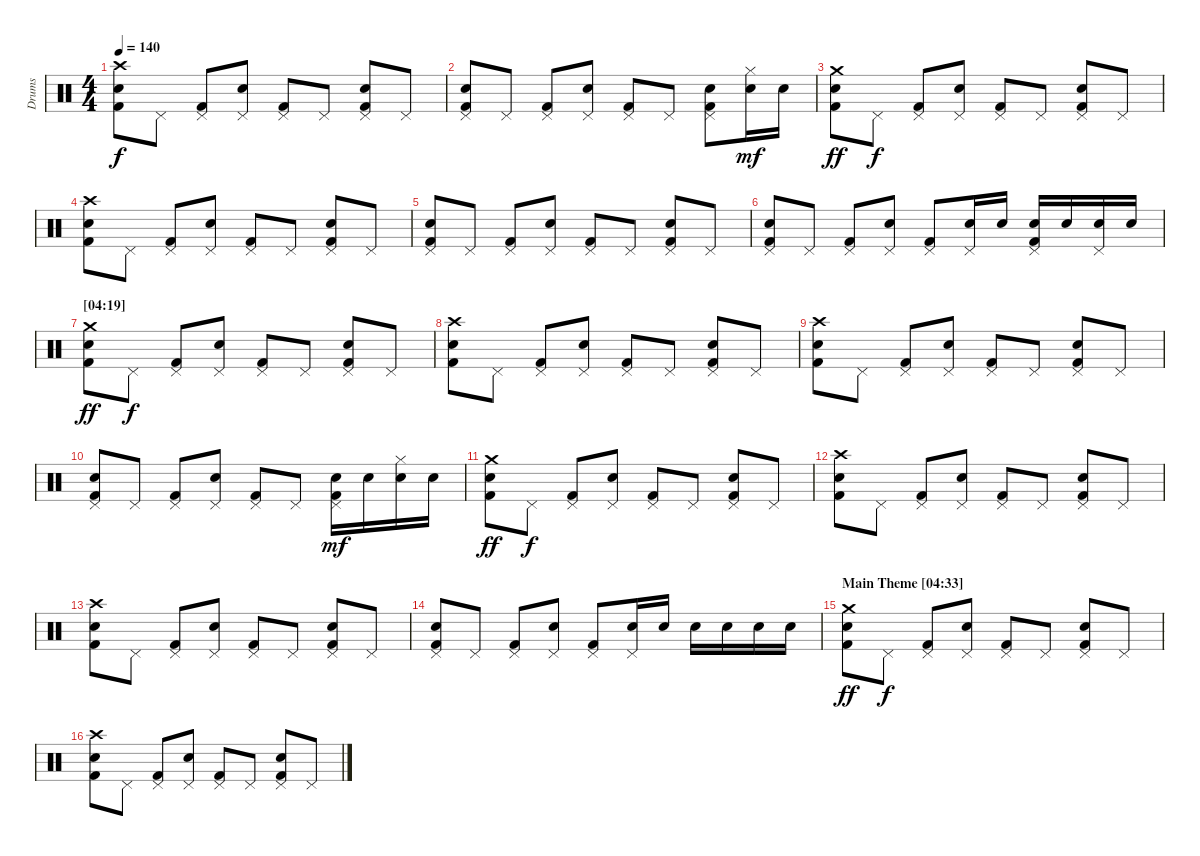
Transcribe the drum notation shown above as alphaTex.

\track ("Drums" "Drums") {instrument percussion}
\staff {score}
\articulation defaults
\ts (4 4)
\tempo 140
\clef neutral
\ks c
("Crash high (hit)" "Electric Snare (hit)" "Kick (hit) 2").8{dy f} "Pedal Hi-Hat (hit)".8 ("Pedal Hi-Hat (hit)" "Kick (hit) 2").8 ("Pedal Hi-Hat (hit)" "Electric Snare (hit)").8 ("Pedal Hi-Hat (hit)" "Kick (hit) 2").8 "Pedal Hi-Hat (hit)".8 ("Pedal Hi-Hat (hit)" "Electric Snare (hit)" "Kick (hit) 2").8 "Pedal Hi-Hat (hit)".8 |
("Pedal Hi-Hat (hit)" "Electric Snare (hit)" "Kick (hit) 2").8 "Pedal Hi-Hat (hit)".8 ("Pedal Hi-Hat (hit)" "Kick (hit) 2").8 ("Pedal Hi-Hat (hit)" "Electric Snare (hit)").8 ("Pedal Hi-Hat (hit)" "Kick (hit) 2").8 "Pedal Hi-Hat (hit)".8 ("Pedal Hi-Hat (hit)" "Electric Snare (hit)" "Kick (hit) 2").8 ("Hi-Hat (closed)" "Electric Snare (hit)").16{dy mf} "Electric Snare (hit)".16 |
\section ("" "")
("Crash medium (hit)" "Electric Snare (hit)" "Kick (hit) 2").8{dy ff} "Pedal Hi-Hat (hit)".8{dy f} ("Pedal Hi-Hat (hit)" "Kick (hit) 2").8 ("Pedal Hi-Hat (hit)" "Electric Snare (hit)").8 ("Pedal Hi-Hat (hit)" "Kick (hit) 2").8 "Pedal Hi-Hat (hit)".8 ("Pedal Hi-Hat (hit)" "Electric Snare (hit)" "Kick (hit) 2").8 "Pedal Hi-Hat (hit)".8 |
("Crash high (hit)" "Electric Snare (hit)" "Kick (hit) 2").8 "Pedal Hi-Hat (hit)".8 ("Pedal Hi-Hat (hit)" "Kick (hit) 2").8 ("Pedal Hi-Hat (hit)" "Electric Snare (hit)").8 ("Pedal Hi-Hat (hit)" "Kick (hit) 2").8 "Pedal Hi-Hat (hit)".8 ("Pedal Hi-Hat (hit)" "Electric Snare (hit)" "Kick (hit) 2").8 "Pedal Hi-Hat (hit)".8 |
("Pedal Hi-Hat (hit)" "Electric Snare (hit)" "Kick (hit) 2").8 "Pedal Hi-Hat (hit)".8 ("Pedal Hi-Hat (hit)" "Kick (hit) 2").8 ("Pedal Hi-Hat (hit)" "Electric Snare (hit)").8 ("Pedal Hi-Hat (hit)" "Kick (hit) 2").8 "Pedal Hi-Hat (hit)".8 ("Pedal Hi-Hat (hit)" "Electric Snare (hit)" "Kick (hit) 2").8 "Pedal Hi-Hat (hit)".8 |
("Pedal Hi-Hat (hit)" "Electric Snare (hit)" "Kick (hit) 2").8 "Pedal Hi-Hat (hit)".8 ("Pedal Hi-Hat (hit)" "Kick (hit) 2").8 ("Pedal Hi-Hat (hit)" "Electric Snare (hit)").8 ("Pedal Hi-Hat (hit)" "Kick (hit) 2").8 ("Pedal Hi-Hat (hit)" "Electric Snare (hit)").16 "Electric Snare (hit)".16 ("Pedal Hi-Hat (hit)" "Electric Snare (hit)" "Kick (hit) 2").16 "Electric Snare (hit)".16 ("Pedal Hi-Hat (hit)" "Electric Snare (hit)").16 "Electric Snare (hit)".16 |
\section ("" "[04:19]")
("Crash medium (hit)" "Electric Snare (hit)" "Kick (hit) 2").8{dy ff} "Pedal Hi-Hat (hit)".8{dy f} ("Pedal Hi-Hat (hit)" "Kick (hit) 2").8 ("Pedal Hi-Hat (hit)" "Electric Snare (hit)").8 ("Pedal Hi-Hat (hit)" "Kick (hit) 2").8 "Pedal Hi-Hat (hit)".8 ("Pedal Hi-Hat (hit)" "Electric Snare (hit)" "Kick (hit) 2").8 "Pedal Hi-Hat (hit)".8 |
("Crash high (hit)" "Electric Snare (hit)" "Kick (hit) 2").8 "Pedal Hi-Hat (hit)".8 ("Pedal Hi-Hat (hit)" "Kick (hit) 2").8 ("Pedal Hi-Hat (hit)" "Electric Snare (hit)").8 ("Pedal Hi-Hat (hit)" "Kick (hit) 2").8 "Pedal Hi-Hat (hit)".8 ("Pedal Hi-Hat (hit)" "Electric Snare (hit)" "Kick (hit) 2").8 "Pedal Hi-Hat (hit)".8 |
("Crash high (hit)" "Electric Snare (hit)" "Kick (hit) 2").8 "Pedal Hi-Hat (hit)".8 ("Pedal Hi-Hat (hit)" "Kick (hit) 2").8 ("Pedal Hi-Hat (hit)" "Electric Snare (hit)").8 ("Pedal Hi-Hat (hit)" "Kick (hit) 2").8 "Pedal Hi-Hat (hit)".8 ("Pedal Hi-Hat (hit)" "Electric Snare (hit)" "Kick (hit) 2").8 "Pedal Hi-Hat (hit)".8 |
("Pedal Hi-Hat (hit)" "Electric Snare (hit)" "Kick (hit) 2").8 "Pedal Hi-Hat (hit)".8 ("Pedal Hi-Hat (hit)" "Kick (hit) 2").8 ("Pedal Hi-Hat (hit)" "Electric Snare (hit)").8 ("Pedal Hi-Hat (hit)" "Kick (hit) 2").8 "Pedal Hi-Hat (hit)".8 ("Pedal Hi-Hat (hit)" "Electric Snare (hit)" "Kick (hit) 2").16{dy mf} "Electric Snare (hit)".16 ("Hi-Hat (closed)" "Electric Snare (hit)").16 "Electric Snare (hit)".16 |
\section ("" "")
("Crash medium (hit)" "Electric Snare (hit)" "Kick (hit) 2").8{dy ff} "Pedal Hi-Hat (hit)".8{dy f} ("Pedal Hi-Hat (hit)" "Kick (hit) 2").8 ("Pedal Hi-Hat (hit)" "Electric Snare (hit)").8 ("Pedal Hi-Hat (hit)" "Kick (hit) 2").8 "Pedal Hi-Hat (hit)".8 ("Pedal Hi-Hat (hit)" "Electric Snare (hit)" "Kick (hit) 2").8 "Pedal Hi-Hat (hit)".8 |
("Crash high (hit)" "Electric Snare (hit)" "Kick (hit) 2").8 "Pedal Hi-Hat (hit)".8 ("Pedal Hi-Hat (hit)" "Kick (hit) 2").8 ("Pedal Hi-Hat (hit)" "Electric Snare (hit)").8 ("Pedal Hi-Hat (hit)" "Kick (hit) 2").8 "Pedal Hi-Hat (hit)".8 ("Pedal Hi-Hat (hit)" "Electric Snare (hit)" "Kick (hit) 2").8 "Pedal Hi-Hat (hit)".8 |
("Crash high (hit)" "Electric Snare (hit)" "Kick (hit) 2").8 "Pedal Hi-Hat (hit)".8 ("Pedal Hi-Hat (hit)" "Kick (hit) 2").8 ("Pedal Hi-Hat (hit)" "Electric Snare (hit)").8 ("Pedal Hi-Hat (hit)" "Kick (hit) 2").8 "Pedal Hi-Hat (hit)".8 ("Pedal Hi-Hat (hit)" "Electric Snare (hit)" "Kick (hit) 2").8 "Pedal Hi-Hat (hit)".8 |
("Pedal Hi-Hat (hit)" "Electric Snare (hit)" "Kick (hit) 2").8 "Pedal Hi-Hat (hit)".8 ("Pedal Hi-Hat (hit)" "Kick (hit) 2").8 ("Pedal Hi-Hat (hit)" "Electric Snare (hit)").8 ("Pedal Hi-Hat (hit)" "Kick (hit) 2").8 ("Pedal Hi-Hat (hit)" "Electric Snare (hit)").16 "Electric Snare (hit)".16 "Electric Snare (hit)".16 "Electric Snare (hit)".16 "Electric Snare (hit)".16 "Electric Snare (hit)".16 |
\section ("" "Main Theme [04:33]")
("Crash medium (hit)" "Electric Snare (hit)" "Kick (hit) 2").8{dy ff} "Pedal Hi-Hat (hit)".8{dy f} ("Pedal Hi-Hat (hit)" "Kick (hit) 2").8 ("Pedal Hi-Hat (hit)" "Electric Snare (hit)").8 ("Pedal Hi-Hat (hit)" "Kick (hit) 2").8 "Pedal Hi-Hat (hit)".8 ("Pedal Hi-Hat (hit)" "Electric Snare (hit)" "Kick (hit) 2").8 "Pedal Hi-Hat (hit)".8 |
("Crash high (hit)" "Electric Snare (hit)" "Kick (hit) 2").8 "Pedal Hi-Hat (hit)".8 ("Pedal Hi-Hat (hit)" "Kick (hit) 2").8 ("Pedal Hi-Hat (hit)" "Electric Snare (hit)").8 ("Pedal Hi-Hat (hit)" "Kick (hit) 2").8 "Pedal Hi-Hat (hit)".8 ("Pedal Hi-Hat (hit)" "Electric Snare (hit)" "Kick (hit) 2").8 "Pedal Hi-Hat (hit)".8
